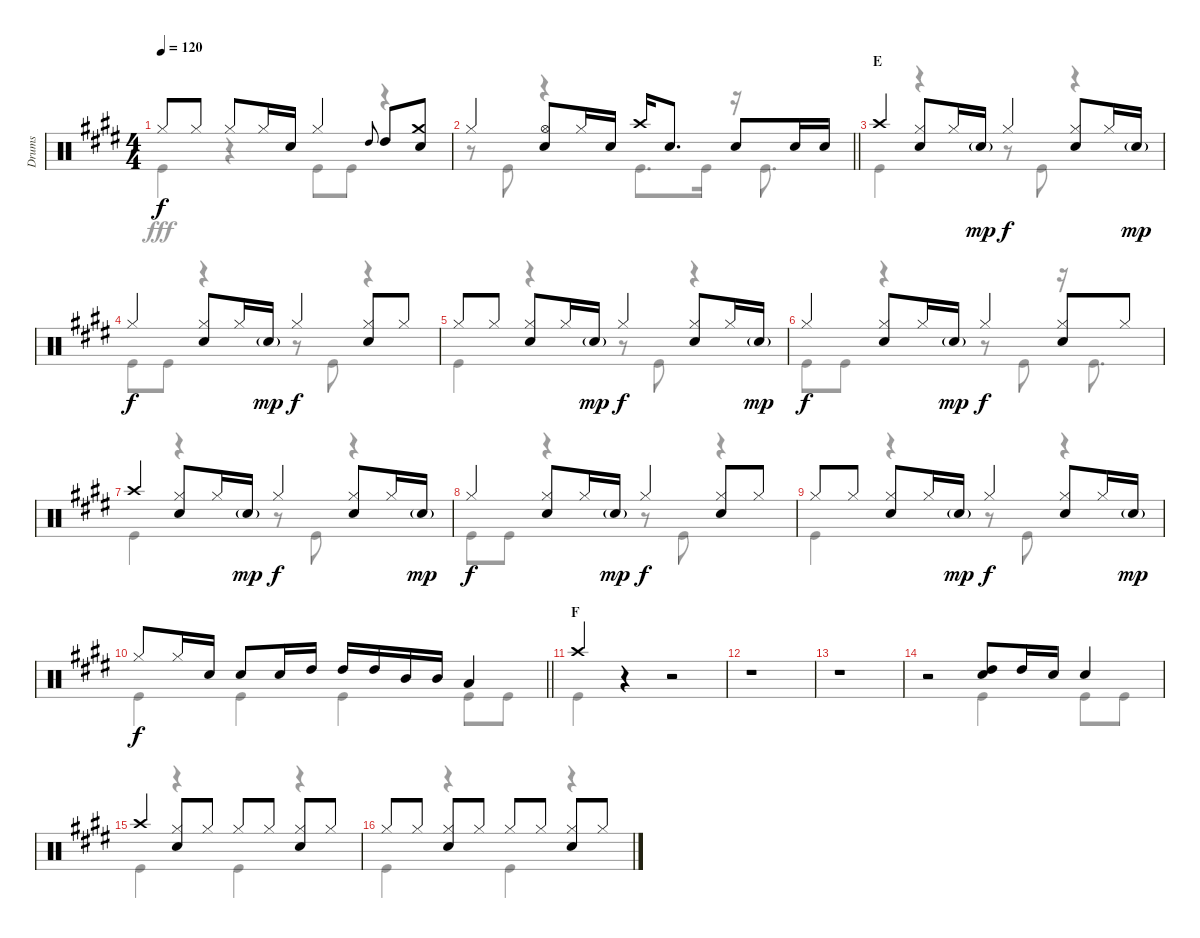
\track ("Drums" "Drums") {instrument percussion}
\staff {score}
\articulation defaults
\voice
\ts (4 4)
\tempo 120
\clef neutral
\ks e "Hi-Hat (closed)".8{dy f} "Hi-Hat (closed)".8 "Hi-Hat (closed)".8 "Hi-Hat (closed)".16 "Snare (hit) 2".16 "Hi-Hat (closed)".4 "High Tom (hit)".8{gr onbeat} "High Tom (hit)".8
("Crash medium (hit)" "Snare (hit) 2").8 |
\barLineRight lightlight "Hi-Hat (closed)".4
("Hi-Hat (open)" "Snare (hit) 2").8 "Hi-Hat (closed)".16 "Snare (hit) 2".16 "Crash high (hit)".16 "Snare (hit) 2".8{d} "Snare (hit) 2".8 "Snare (hit) 2".16 "Snare (hit) 2".16 |
\section ("" "E")
"Crash high (hit)".4 ("Hi-Hat (closed)" "Snare (hit) 2").8 "Hi-Hat (closed)".16 "Snare (hit) 2"{g}.16{dy mp} "Hi-Hat (closed)".4{dy f} ("Hi-Hat (closed)" "Snare (hit) 2").8 "Hi-Hat (closed)".16 "Snare (hit) 2"{g}.16{dy mp} |
"Hi-Hat (closed)".4{dy f} ("Hi-Hat (closed)" "Snare (hit) 2").8 "Hi-Hat (closed)".16 "Snare (hit) 2"{g}.16{dy mp} "Hi-Hat (closed)".4{dy f} ("Hi-Hat (closed)" "Snare (hit) 2").8 "Hi-Hat (closed)".8 |
"Hi-Hat (closed)".8 "Hi-Hat (closed)".8 ("Hi-Hat (closed)" "Snare (hit) 2").8 "Hi-Hat (closed)".16 "Snare (hit) 2"{g}.16{dy mp} "Hi-Hat (closed)".4{dy f} ("Hi-Hat (closed)" "Snare (hit) 2").8 "Hi-Hat (closed)".16 "Snare (hit) 2"{g}.16{dy mp} |
"Hi-Hat (closed)".4{dy f} ("Hi-Hat (closed)" "Snare (hit) 2").8 "Hi-Hat (closed)".16 "Snare (hit) 2"{g}.16{dy mp} "Hi-Hat (closed)".4{dy f} ("Hi-Hat (closed)" "Snare (hit) 2").8 "Hi-Hat (closed)".8 |
"Crash high (hit)".4 ("Hi-Hat (closed)" "Snare (hit) 2").8 "Hi-Hat (closed)".16 "Snare (hit) 2"{g}.16{dy mp} "Hi-Hat (closed)".4{dy f} ("Hi-Hat (closed)" "Snare (hit) 2").8 "Hi-Hat (closed)".16 "Snare (hit) 2"{g}.16{dy mp} |
"Hi-Hat (closed)".4{dy f} ("Hi-Hat (closed)" "Snare (hit) 2").8 "Hi-Hat (closed)".16 "Snare (hit) 2"{g}.16{dy mp} "Hi-Hat (closed)".4{dy f} ("Hi-Hat (closed)" "Snare (hit) 2").8 "Hi-Hat (closed)".8 |
"Hi-Hat (closed)".8 "Hi-Hat (closed)".8 ("Hi-Hat (closed)" "Snare (hit) 2").8 "Hi-Hat (closed)".16 "Snare (hit) 2"{g}.16{dy mp} "Hi-Hat (closed)".4{dy f} ("Hi-Hat (closed)" "Snare (hit) 2").8 "Hi-Hat (closed)".16 "Snare (hit) 2"{g}.16{dy mp} |
\barLineRight lightlight "Hi-Hat (closed)".8{dy f} "Hi-Hat (closed)".16 "Snare (hit) 2".16 "Snare (hit) 2".8 "Snare (hit) 2".16 "High Tom (hit)".16 "High Tom (hit)".16 "High Tom (hit)".16 "Mid Tom (hit)".16 "Mid Tom (hit)".16 "Low Tom (hit)".4
|
\section ("" "F")
"Crash high (hit)".4 r.4 r.2 |
r.1 |
r.1 |
r.2 ("High Tom (hit)" "Snare (hit) 2").8 "High Tom (hit)".16 "Snare (hit) 2".16 "Snare (hit) 2".4 |
"Crash high (hit)".4 ("Hi-Hat (closed)" "Snare (hit) 2").8 "Hi-Hat (closed)".8 "Hi-Hat (closed)".8 "Hi-Hat (closed)".8 ("Hi-Hat (closed)" "Snare (hit) 2").8 "Hi-Hat (closed)".8 |
"Hi-Hat (closed)".8 "Hi-Hat (closed)".8 ("Hi-Hat (closed)" "Snare (hit) 2").8 "Hi-Hat (closed)".8 "Hi-Hat (closed)".8 "Hi-Hat (closed)".8 ("Hi-Hat (closed)" "Snare (hit) 2").8 "Hi-Hat (closed)".8
\voice
\clef neutral
\ottava regular
\simile none
\ks e "Kick (hit)".4{dy fff}
r.4 "Kick (hit)".8 "Kick (hit)".8 r.4 |
\barLineRight lightlight
r.8 "Kick (hit)".8 r.4 "Kick (hit)".8{d} "Kick (hit)".16 r.16 "Kick (hit)".8{d} |
"Kick (hit)".4 r.4 r.8 "Kick (hit)".8 r.4 |
"Kick (hit)".8 "Kick (hit)".8 r.4 r.8 "Kick (hit)".8 r.4 |
"Kick (hit)".4 r.4 r.8 "Kick (hit)".8 r.4 |
"Kick (hit)".8 "Kick (hit)".8 r.4 r.8 "Kick (hit)".8 r.16 "Kick (hit)".8{d} |
"Kick (hit)".4 r.4 r.8 "Kick (hit)".8 r.4 |
"Kick (hit)".8 "Kick (hit)".8 r.4 r.8 "Kick (hit)".8 r.4 |
"Kick (hit)".4 r.4 r.8 "Kick (hit)".8 r.4 |
\barLineRight lightlight "Kick (hit)".4 "Kick (hit)".4 "Kick (hit)".4 "Kick (hit)".8 "Kick (hit)".8
|
"Kick (hit)".4 r.4 r.2 |
r.1 |
r.1 |
r.2 "Kick (hit)".4 "Kick (hit)".8 "Kick (hit)".8 |
"Kick (hit)".4 r.4 "Kick (hit)".4 r.4 |
"Kick (hit)".4 r.4 "Kick (hit)".4 r.4
